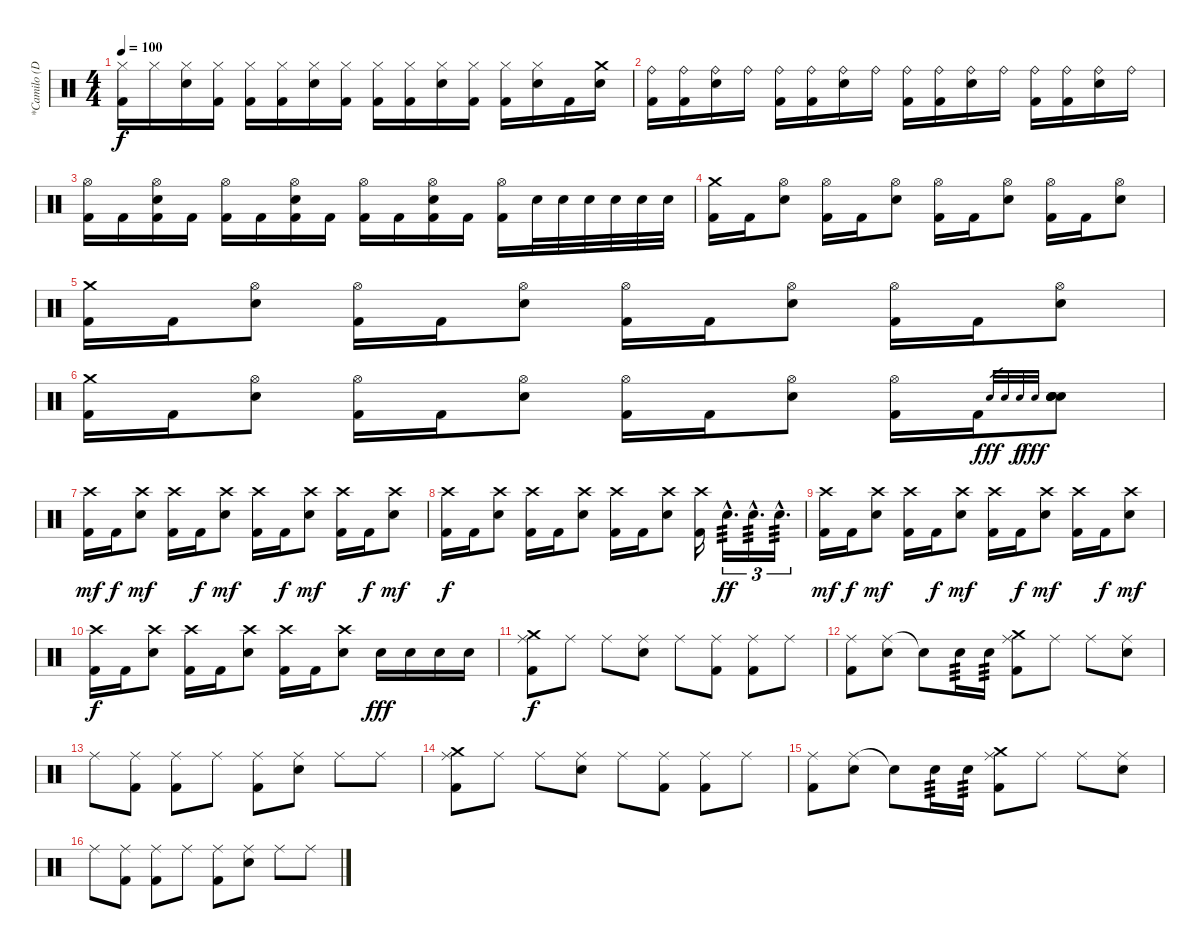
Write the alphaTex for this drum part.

\track ("*Camilo (Drums)" "*Camilo (D") {instrument percussion}
\staff {score}
\articulation defaults
\ts (4 4)
\tempo 100
\clef neutral
\ks c
("Hi-Hat (closed)" "Kick (hit) 2").16{dy f} "Hi-Hat (closed)".16 ("Hi-Hat (closed)" "Electric Snare (hit)").16 ("Hi-Hat (closed)" "Kick (hit) 2").16 ("Hi-Hat (closed)" "Kick (hit) 2").16 ("Hi-Hat (closed)" "Kick (hit) 2").16 ("Hi-Hat (closed)" "Electric Snare (hit)").16 ("Hi-Hat (closed)" "Kick (hit) 2").16 ("Hi-Hat (closed)" "Kick (hit) 2").16 ("Hi-Hat (closed)" "Kick (hit) 2").16 ("Hi-Hat (closed)" "Electric Snare (hit)").16 ("Hi-Hat (closed)" "Kick (hit) 2").16 ("Hi-Hat (closed)" "Kick (hit) 2").16 ("Hi-Hat (closed)" "Electric Snare (hit)").16 "Kick (hit) 2".16 ("Crash medium (hit)" "Electric Snare (hit)").16 |
("Ride (bell)" "Kick (hit) 2").16 ("Ride (bell)" "Kick (hit) 2").16 ("Ride (bell)" "Electric Snare (hit)").16 "Ride (bell)".16 ("Ride (bell)" "Kick (hit) 2").16 ("Ride (bell)" "Kick (hit) 2").16 ("Ride (bell)" "Electric Snare (hit)").16 "Ride (bell)".16 ("Ride (bell)" "Kick (hit) 2").16 ("Ride (bell)" "Kick (hit) 2").16 ("Ride (bell)" "Electric Snare (hit)").16 "Ride (bell)".16 ("Ride (bell)" "Kick (hit) 2").16 ("Ride (bell)" "Kick (hit) 2").16 ("Ride (bell)" "Electric Snare (hit)").16 "Ride (bell)".16 |
("Hi-Hat (open)" "Kick (hit) 2").16 "Kick (hit) 2".16 ("Hi-Hat (open)" "Electric Snare (hit)" "Kick (hit) 2").16 "Kick (hit) 2".16 ("Hi-Hat (open)" "Kick (hit) 2").16 "Kick (hit) 2".16 ("Hi-Hat (open)" "Electric Snare (hit)" "Kick (hit) 2").16 "Kick (hit) 2".16 ("Hi-Hat (open)" "Kick (hit) 2").16 "Kick (hit) 2".16 ("Hi-Hat (open)" "Electric Snare (hit)" "Kick (hit) 2").16 "Kick (hit) 2".16 ("Hi-Hat (open)" "Kick (hit) 2").16 "Electric Snare (hit)".32 "Electric Snare (hit)".32 "Electric Snare (hit)".32 "Electric Snare (hit)".32 "Electric Snare (hit)".32 "Electric Snare (hit)".32 |
("Crash medium (hit)" "Kick (hit) 2").16 "Kick (hit) 2".16 ("Hi-Hat (open)" "Electric Snare (hit)").8 ("Hi-Hat (open)" "Kick (hit) 2").16 "Kick (hit) 2".16 ("Hi-Hat (open)" "Electric Snare (hit)").8 ("Hi-Hat (open)" "Kick (hit) 2").16 "Kick (hit) 2".16 ("Hi-Hat (open)" "Electric Snare (hit)").8 ("Hi-Hat (open)" "Kick (hit) 2").16 "Kick (hit) 2".16 ("Hi-Hat (open)" "Electric Snare (hit)").8 |
("Crash medium (hit)" "Kick (hit) 2").16 "Kick (hit) 2".16 ("Hi-Hat (open)" "Electric Snare (hit)").8 ("Hi-Hat (open)" "Kick (hit) 2").16 "Kick (hit) 2".16 ("Hi-Hat (open)" "Electric Snare (hit)").8 ("Hi-Hat (open)" "Kick (hit) 2").16 "Kick (hit) 2".16 ("Hi-Hat (open)" "Electric Snare (hit)").8 ("Hi-Hat (open)" "Kick (hit) 2").16 "Kick (hit) 2".16 ("Hi-Hat (open)" "Electric Snare (hit)").8 |
("Crash medium (hit)" "Kick (hit) 2").16 "Kick (hit) 2".16 ("Hi-Hat (open)" "Electric Snare (hit)").8 ("Hi-Hat (open)" "Kick (hit) 2").16 "Kick (hit) 2".16 ("Hi-Hat (open)" "Electric Snare (hit)").8 ("Hi-Hat (open)" "Kick (hit) 2").16 "Kick (hit) 2".16 ("Hi-Hat (open)" "Electric Snare (hit)").8 ("Hi-Hat (open)" "Kick (hit) 2").16 "Kick (hit) 2".16 "Electric Snare (hit)".32{gr dy fff} "Electric Snare (hit)".32{gr} "Electric Snare (hit)".32{gr dy f} "Electric Snare (hit)".32{gr dy fff} ("Electric Snare (hit)" "Electric Snare (hit)" "Electric Snare (hit)" "Electric Snare (hit)").8 |
("Crash high (hit)" "Kick (hit) 2").16{dy mf} "Kick (hit) 2".16{dy f} ("Crash high (hit)" "Electric Snare (hit)").8{dy mf} ("Crash high (hit)" "Kick (hit) 2").16 "Kick (hit) 2".16{dy f} ("Crash high (hit)" "Electric Snare (hit)").8{dy mf} ("Crash high (hit)" "Kick (hit) 2").16 "Kick (hit) 2".16{dy f} ("Crash high (hit)" "Electric Snare (hit)").8{dy mf} ("Crash high (hit)" "Kick (hit) 2").16 "Kick (hit) 2".16{dy f} ("Crash high (hit)" "Electric Snare (hit)").8{dy mf} |
("Crash high (hit)" "Kick (hit) 2").16{dy f} "Kick (hit) 2".16 ("Crash high (hit)" "Electric Snare (hit)").8 ("Crash high (hit)" "Kick (hit) 2").16 "Kick (hit) 2".16 ("Crash high (hit)" "Electric Snare (hit)").8 ("Crash high (hit)" "Kick (hit) 2").16 "Kick (hit) 2".16 ("Crash high (hit)" "Electric Snare (hit)").8 ("Crash high (hit)" "Kick (hit) 2").16 "Electric Snare (hit)"{hac}.16{d tu (3 2) tp 3 dy ff} "Electric Snare (hit)"{hac}.16{d tu (3 2) tp 3} "Electric Snare (hit)"{hac}.16{d tu (3 2) tp 3} |
("Crash high (hit)" "Kick (hit) 2").16{dy mf} "Kick (hit) 2".16{dy f} ("Crash high (hit)" "Electric Snare (hit)").8{dy mf} ("Crash high (hit)" "Kick (hit) 2").16 "Kick (hit) 2".16{dy f} ("Crash high (hit)" "Electric Snare (hit)").8{dy mf} ("Crash high (hit)" "Kick (hit) 2").16 "Kick (hit) 2".16{dy f} ("Crash high (hit)" "Electric Snare (hit)").8{dy mf} ("Crash high (hit)" "Kick (hit) 2").16 "Kick (hit) 2".16{dy f} ("Crash high (hit)" "Electric Snare (hit)").8{dy mf} |
("Crash high (hit)" "Kick (hit) 2").16{dy f} "Kick (hit) 2".16 ("Crash high (hit)" "Electric Snare (hit)").8 ("Crash high (hit)" "Kick (hit) 2").16 "Kick (hit) 2".16 ("Crash high (hit)" "Electric Snare (hit)").8 ("Crash high (hit)" "Kick (hit) 2").16 "Kick (hit) 2".16 ("Crash high (hit)" "Electric Snare (hit)").8 "Electric Snare (hit)".16{dy fff} "Electric Snare (hit)".16 "Electric Snare (hit)".16 "Electric Snare (hit)".16 |
("Crash medium (hit)" "Ride (middle)" "Kick (hit) 2").8{dy f} "Ride (middle)".8 "Ride (middle)".8 ("Ride (middle)" "Electric Snare (hit)").8 "Ride (middle)".8 ("Ride (middle)" "Kick (hit) 2").8 ("Ride (middle)" "Kick (hit) 2").8 "Ride (middle)".8 |
("Ride (middle)" "Kick (hit) 2").8 ("Ride (middle)" "Electric Snare (hit)").8 "Snare (hit)"{t}.8 "Electric Snare (hit)".16{tp 3} "Electric Snare (hit)".16{tp 3} ("Crash medium (hit)" "Ride (middle)" "Kick (hit) 2").8 "Ride (middle)".8 "Ride (middle)".8 ("Ride (middle)" "Electric Snare (hit)").8 |
"Ride (middle)".8 ("Ride (middle)" "Kick (hit) 2").8 ("Ride (middle)" "Kick (hit) 2").8 "Ride (middle)".8 ("Ride (middle)" "Kick (hit) 2").8 ("Ride (middle)" "Electric Snare (hit)").8 "Ride (middle)".8 "Ride (middle)".8 |
("Crash medium (hit)" "Ride (middle)" "Kick (hit) 2").8 "Ride (middle)".8 "Ride (middle)".8 ("Ride (middle)" "Electric Snare (hit)").8 "Ride (middle)".8 ("Ride (middle)" "Kick (hit) 2").8 ("Ride (middle)" "Kick (hit) 2").8 "Ride (middle)".8 |
("Ride (middle)" "Kick (hit) 2").8 ("Ride (middle)" "Electric Snare (hit)").8 "Snare (hit)"{t}.8 "Electric Snare (hit)".16{tp 3} "Electric Snare (hit)".16{tp 3} ("Crash medium (hit)" "Ride (middle)" "Kick (hit) 2").8 "Ride (middle)".8 "Ride (middle)".8 ("Ride (middle)" "Electric Snare (hit)").8 |
"Ride (middle)".8 ("Ride (middle)" "Kick (hit) 2").8 ("Ride (middle)" "Kick (hit) 2").8 "Ride (middle)".8 ("Ride (middle)" "Kick (hit) 2").8 ("Ride (middle)" "Electric Snare (hit)").8 "Ride (middle)".8 "Ride (middle)".8
